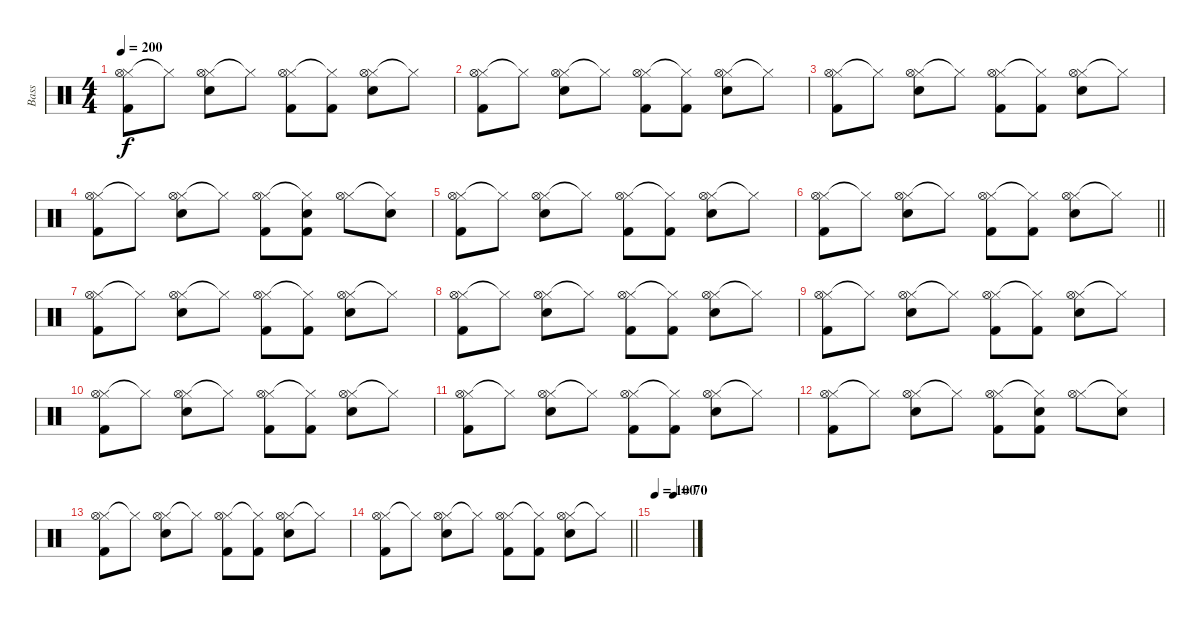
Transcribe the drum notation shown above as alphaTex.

\track ("Bass" "Bass") {instrument percussion}
\staff {score}
\articulation defaults
\ts (4 4)
\tempo 200
\clef neutral
\ks c
("Hi-Hat (closed)" "Hi-Hat (open)" "Kick (hit) 2").8{dy f} "Hi-Hat (closed)"{t}.8 ("Hi-Hat (closed)" "Hi-Hat (open)" "Snare (hit) 2").8 "Hi-Hat (closed)"{t}.8 ("Hi-Hat (closed)" "Hi-Hat (open)" "Kick (hit) 2").8 ("Hi-Hat (closed)"{t} "Kick (hit) 2").8 ("Hi-Hat (closed)" "Hi-Hat (open)" "Snare (hit) 2").8 "Hi-Hat (closed)"{t}.8 |
("Hi-Hat (closed)" "Hi-Hat (open)" "Kick (hit) 2").8 "Hi-Hat (closed)"{t}.8 ("Hi-Hat (closed)" "Hi-Hat (open)" "Snare (hit) 2").8 "Hi-Hat (closed)"{t}.8 ("Hi-Hat (closed)" "Hi-Hat (open)" "Kick (hit) 2").8 ("Hi-Hat (closed)"{t} "Kick (hit) 2").8 ("Hi-Hat (closed)" "Hi-Hat (open)" "Snare (hit) 2").8 "Hi-Hat (closed)"{t}.8 |
("Hi-Hat (closed)" "Hi-Hat (open)" "Kick (hit) 2").8 "Hi-Hat (closed)"{t}.8 ("Hi-Hat (closed)" "Hi-Hat (open)" "Snare (hit) 2").8 "Hi-Hat (closed)"{t}.8 ("Hi-Hat (closed)" "Hi-Hat (open)" "Kick (hit) 2").8 ("Hi-Hat (closed)"{t} "Kick (hit) 2").8 ("Hi-Hat (closed)" "Hi-Hat (open)" "Snare (hit) 2").8 "Hi-Hat (closed)"{t}.8 |
("Hi-Hat (closed)" "Hi-Hat (open)" "Kick (hit) 2").8 "Hi-Hat (closed)"{t}.8 ("Hi-Hat (closed)" "Hi-Hat (open)" "Snare (hit) 2").8 "Hi-Hat (closed)"{t}.8 ("Hi-Hat (closed)" "Hi-Hat (open)" "Kick (hit) 2").8 ("Hi-Hat (closed)"{t} "Snare (hit) 2" "Kick (hit) 2").8 ("Hi-Hat (closed)" "Hi-Hat (open)").8 ("Hi-Hat (closed)"{t} "Snare (hit) 2").8 |
("Hi-Hat (closed)" "Hi-Hat (open)" "Kick (hit) 2").8 "Hi-Hat (closed)"{t}.8 ("Hi-Hat (closed)" "Hi-Hat (open)" "Snare (hit) 2").8 "Hi-Hat (closed)"{t}.8 ("Hi-Hat (closed)" "Hi-Hat (open)" "Kick (hit) 2").8 ("Hi-Hat (closed)"{t} "Kick (hit) 2").8 ("Hi-Hat (closed)" "Hi-Hat (open)" "Snare (hit) 2").8 "Hi-Hat (closed)"{t}.8 |
\barLineRight lightlight
("Hi-Hat (closed)" "Hi-Hat (open)" "Kick (hit) 2").8 "Hi-Hat (closed)"{t}.8 ("Hi-Hat (closed)" "Hi-Hat (open)" "Snare (hit) 2").8 "Hi-Hat (closed)"{t}.8 ("Hi-Hat (closed)" "Hi-Hat (open)" "Kick (hit) 2").8 ("Hi-Hat (closed)"{t} "Kick (hit) 2").8 ("Hi-Hat (closed)" "Hi-Hat (open)" "Snare (hit) 2").8 "Hi-Hat (closed)"{t}.8 |
("Hi-Hat (closed)" "Hi-Hat (open)" "Kick (hit) 2").8 "Hi-Hat (closed)"{t}.8 ("Hi-Hat (closed)" "Hi-Hat (open)" "Snare (hit) 2").8 "Hi-Hat (closed)"{t}.8 ("Hi-Hat (closed)" "Hi-Hat (open)" "Kick (hit) 2").8 ("Hi-Hat (closed)"{t} "Kick (hit) 2").8 ("Hi-Hat (closed)" "Hi-Hat (open)" "Snare (hit) 2").8 "Hi-Hat (closed)"{t}.8 |
("Hi-Hat (closed)" "Hi-Hat (open)" "Kick (hit) 2").8 "Hi-Hat (closed)"{t}.8 ("Hi-Hat (closed)" "Hi-Hat (open)" "Snare (hit) 2").8 "Hi-Hat (closed)"{t}.8 ("Hi-Hat (closed)" "Hi-Hat (open)" "Kick (hit) 2").8 ("Hi-Hat (closed)"{t} "Kick (hit) 2").8 ("Hi-Hat (closed)" "Hi-Hat (open)" "Snare (hit) 2").8 "Hi-Hat (closed)"{t}.8 |
("Hi-Hat (closed)" "Hi-Hat (open)" "Kick (hit) 2").8 "Hi-Hat (closed)"{t}.8 ("Hi-Hat (closed)" "Hi-Hat (open)" "Snare (hit) 2").8 "Hi-Hat (closed)"{t}.8 ("Hi-Hat (closed)" "Hi-Hat (open)" "Kick (hit) 2").8 ("Hi-Hat (closed)"{t} "Kick (hit) 2").8 ("Hi-Hat (closed)" "Hi-Hat (open)" "Snare (hit) 2").8 "Hi-Hat (closed)"{t}.8 |
("Hi-Hat (closed)" "Hi-Hat (open)" "Kick (hit) 2").8 "Hi-Hat (closed)"{t}.8 ("Hi-Hat (closed)" "Hi-Hat (open)" "Snare (hit) 2").8 "Hi-Hat (closed)"{t}.8 ("Hi-Hat (closed)" "Hi-Hat (open)" "Kick (hit) 2").8 ("Hi-Hat (closed)"{t} "Kick (hit) 2").8 ("Hi-Hat (closed)" "Hi-Hat (open)" "Snare (hit) 2").8 "Hi-Hat (closed)"{t}.8 |
("Hi-Hat (closed)" "Hi-Hat (open)" "Kick (hit) 2").8 "Hi-Hat (closed)"{t}.8 ("Hi-Hat (closed)" "Hi-Hat (open)" "Snare (hit) 2").8 "Hi-Hat (closed)"{t}.8 ("Hi-Hat (closed)" "Hi-Hat (open)" "Kick (hit) 2").8 ("Hi-Hat (closed)"{t} "Kick (hit) 2").8 ("Hi-Hat (closed)" "Hi-Hat (open)" "Snare (hit) 2").8 "Hi-Hat (closed)"{t}.8 |
("Hi-Hat (closed)" "Hi-Hat (open)" "Kick (hit) 2").8 "Hi-Hat (closed)"{t}.8 ("Hi-Hat (closed)" "Hi-Hat (open)" "Snare (hit) 2").8 "Hi-Hat (closed)"{t}.8 ("Hi-Hat (closed)" "Hi-Hat (open)" "Kick (hit) 2").8 ("Hi-Hat (closed)"{t} "Snare (hit) 2" "Kick (hit) 2").8 ("Hi-Hat (closed)" "Hi-Hat (open)").8 ("Hi-Hat (closed)"{t} "Snare (hit) 2").8 |
("Hi-Hat (closed)" "Hi-Hat (open)" "Kick (hit) 2").8 "Hi-Hat (closed)"{t}.8 ("Hi-Hat (closed)" "Hi-Hat (open)" "Snare (hit) 2").8 "Hi-Hat (closed)"{t}.8 ("Hi-Hat (closed)" "Hi-Hat (open)" "Kick (hit) 2").8 ("Hi-Hat (closed)"{t} "Kick (hit) 2").8 ("Hi-Hat (closed)" "Hi-Hat (open)" "Snare (hit) 2").8 "Hi-Hat (closed)"{t}.8 |
\barLineRight lightlight
("Hi-Hat (closed)" "Hi-Hat (open)" "Kick (hit) 2").8 "Hi-Hat (closed)"{t}.8 ("Hi-Hat (closed)" "Hi-Hat (open)" "Snare (hit) 2").8 "Hi-Hat (closed)"{t}.8 ("Hi-Hat (closed)" "Hi-Hat (open)" "Kick (hit) 2").8 ("Hi-Hat (closed)"{t} "Kick (hit) 2").8 ("Hi-Hat (closed)" "Hi-Hat (open)" "Snare (hit) 2").8 "Hi-Hat (closed)"{t}.8 |
\tempo 100
\tempo (70 0.5)
